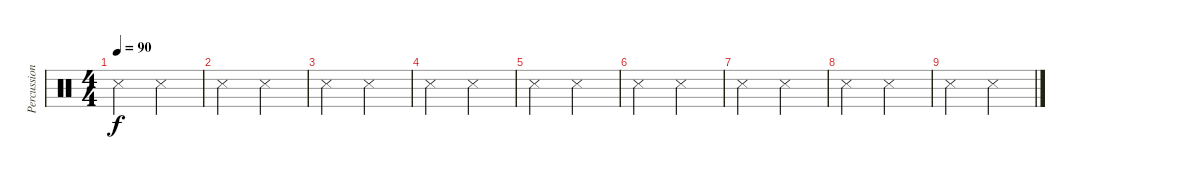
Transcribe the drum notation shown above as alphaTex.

\track ("Percussion" "Percussion") {instrument percussion}
\staff {score}
\articulation defaults
\ts (4 4)
\tempo 90
\clef neutral
\ks c "Snare (side stick) 3".2{dy f} "Snare (side stick) 3".2
|
"Snare (side stick) 3".2 "Snare (side stick) 3".2 |
"Snare (side stick) 3".2 "Snare (side stick) 3".2 |
"Snare (side stick) 3".2 "Snare (side stick) 3".2 |
"Snare (side stick) 3".2 "Snare (side stick) 3".2 |
"Snare (side stick) 3".2 "Snare (side stick) 3".2 |
"Snare (side stick) 3".2 "Snare (side stick) 3".2 |
"Snare (side stick) 3".2 "Snare (side stick) 3".2 |
"Snare (side stick) 3".2 "Snare (side stick) 3".2
